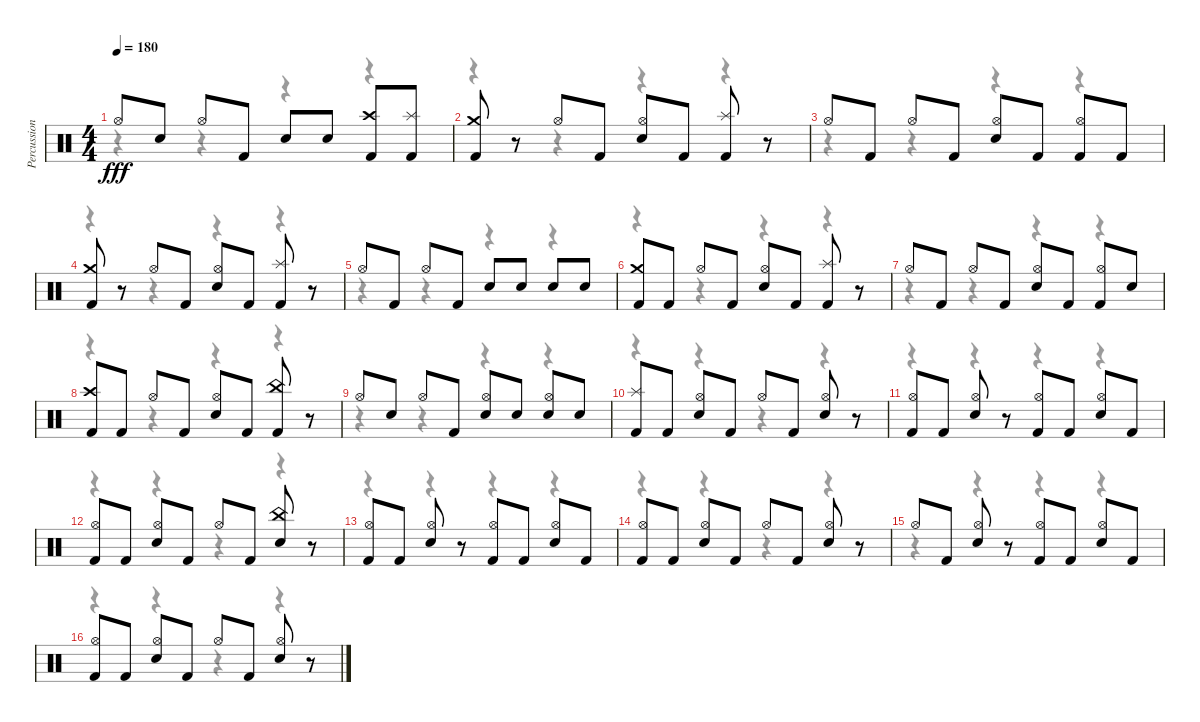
\track ("Percussion" "Percussion") {instrument percussion}
\staff {score}
\articulation defaults
\voice
\ts (4 4)
\tempo 180
\clef neutral
\ks c "Hi-Hat (open)".8{dy fff} "Snare (hit) 2".8 "Hi-Hat (open)".8 "Kick (hit) 2".8 "Snare (hit) 2".8 "Snare (hit) 2".8
("Kick (hit) 2" "Crash high (hit)").8 ("Kick (hit) 2" "Splash (hit)").8 |
("Kick (hit) 2" "Crash medium (hit)").8 r.8 "Hi-Hat (open)".8 "Kick (hit) 2".8 ("Hi-Hat (open)" "Snare (hit) 2").8 "Kick (hit) 2".8 ("Kick (hit) 2" "Splash (hit)").8 r.8 |
"Hi-Hat (open)".8 "Kick (hit) 2".8 "Hi-Hat (open)".8 "Kick (hit) 2".8 ("Hi-Hat (open)" "Snare (hit) 2").8 "Kick (hit) 2".8 ("Hi-Hat (open)" "Kick (hit) 2").8 "Kick (hit) 2".8 |
("Kick (hit) 2" "Crash medium (hit)").8 r.8 "Hi-Hat (open)".8 "Kick (hit) 2".8 ("Hi-Hat (open)" "Snare (hit) 2").8 "Kick (hit) 2".8 ("Kick (hit) 2" "Splash (hit)").8 r.8 |
"Hi-Hat (open)".8 "Kick (hit) 2".8 "Hi-Hat (open)".8 "Kick (hit) 2".8 "Snare (hit) 2".8 "Snare (hit) 2".8 "Snare (hit) 2".8 "Snare (hit) 2".8 |
("Kick (hit) 2" "Crash medium (hit)").8 "Kick (hit) 2".8 "Hi-Hat (open)".8 "Kick (hit) 2".8 ("Hi-Hat (open)" "Snare (hit) 2").8 "Kick (hit) 2".8 ("Kick (hit) 2" "Splash (hit)").8 r.8 |
"Hi-Hat (open)".8 "Kick (hit) 2".8 "Hi-Hat (open)".8 "Kick (hit) 2".8 ("Hi-Hat (open)" "Snare (hit) 2").8 "Kick (hit) 2".8 ("Hi-Hat (open)" "Kick (hit) 2").8 "Snare (hit) 2".8 |
("Kick (hit) 2" "Crash high (hit)").8 "Kick (hit) 2".8 "Hi-Hat (open)".8 "Kick (hit) 2".8 ("Hi-Hat (open)" "Snare (hit) 2").8 "Kick (hit) 2".8 ("Kick (hit) 2" "China (hit)").8 r.8 |
"Hi-Hat (open)".8 "Snare (hit) 2".8 "Hi-Hat (open)".8 "Kick (hit) 2".8 ("Hi-Hat (open)" "Snare (hit) 2").8 "Snare (hit) 2".8 ("Hi-Hat (open)" "Snare (hit) 2").8 "Snare (hit) 2".8 |
("Kick (hit) 2" "Splash (hit)").8 "Kick (hit) 2".8 ("Hi-Hat (open)" "Snare (hit) 2").8 "Kick (hit) 2".8 "Hi-Hat (open)".8 "Kick (hit) 2".8 ("Hi-Hat (open)" "Snare (hit) 2").8 r.8 |
("Hi-Hat (open)" "Kick (hit) 2").8 "Kick (hit) 2".8 ("Hi-Hat (open)" "Snare (hit) 2").8 r.8 ("Hi-Hat (open)" "Kick (hit) 2").8 "Kick (hit) 2".8 ("Hi-Hat (open)" "Snare (hit) 2").8 "Kick (hit) 2".8 |
("Hi-Hat (open)" "Kick (hit) 2").8 "Kick (hit) 2".8 ("Hi-Hat (open)" "Snare (hit) 2").8 "Kick (hit) 2".8 "Hi-Hat (open)".8 "Kick (hit) 2".8 ("Snare (hit) 2" "China (hit)").8 r.8 |
("Hi-Hat (open)" "Kick (hit) 2").8 "Kick (hit) 2".8 ("Hi-Hat (open)" "Snare (hit) 2").8 r.8 ("Hi-Hat (open)" "Kick (hit) 2").8 "Kick (hit) 2".8 ("Hi-Hat (open)" "Snare (hit) 2").8 "Kick (hit) 2".8 |
("Hi-Hat (open)" "Kick (hit) 2").8 "Kick (hit) 2".8 ("Hi-Hat (open)" "Snare (hit) 2").8 "Kick (hit) 2".8 "Hi-Hat (open)".8 "Kick (hit) 2".8 ("Hi-Hat (open)" "Snare (hit) 2").8 r.8 |
"Hi-Hat (open)".8 "Kick (hit) 2".8 ("Hi-Hat (open)" "Snare (hit) 2").8 r.8 ("Hi-Hat (open)" "Kick (hit) 2").8 "Kick (hit) 2".8 ("Hi-Hat (open)" "Snare (hit) 2").8 "Kick (hit) 2".8 |
("Hi-Hat (open)" "Kick (hit) 2").8 "Kick (hit) 2".8 ("Hi-Hat (open)" "Snare (hit) 2").8 "Kick (hit) 2".8 "Hi-Hat (open)".8 "Kick (hit) 2".8 ("Hi-Hat (open)" "Snare (hit) 2").8 r.8
\voice
\clef neutral
\ottava regular
\simile none
\ks c
r.4{dy f} r.4 r.4 r.4 |
r.4 r.4 r.4 r.4 |
r.4 r.4 r.4 r.4 |
r.4 r.4 r.4 r.4 |
r.4 r.4 r.4 r.4 |
r.4 r.4 r.4 r.4 |
r.4 r.4 r.4 r.4 |
r.4 r.4 r.4 r.4 |
r.4 r.4 r.4 r.4 |
r.4 r.4 r.4 r.4 |
r.4 r.4 r.4 r.4 |
r.4 r.4 r.4 r.4 |
r.4 r.4 r.4 r.4 |
r.4 r.4 r.4 r.4 |
r.4 r.4 r.4 r.4 |
r.4 r.4 r.4 r.4
